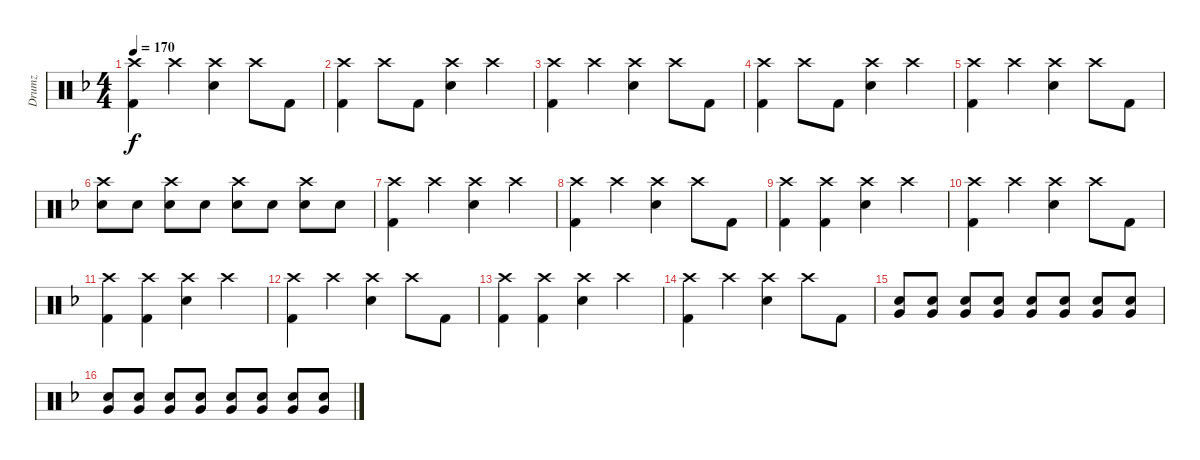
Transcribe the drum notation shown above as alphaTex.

\track ("Drumz" "Drumz") {instrument percussion}
\staff {score}
\articulation defaults
\ts (4 4)
\tempo 170
\clef neutral
\ks dminor
("Crash high (hit)" "Kick (hit) 2").4{dy f} "Crash high (hit)".4 ("Crash high (hit)" "Snare (hit) 2").4 "Crash high (hit)".8 "Kick (hit) 2".8 |
("Crash high (hit)" "Kick (hit) 2").4 "Crash high (hit)".8 "Kick (hit) 2".8 ("Crash high (hit)" "Snare (hit) 2").4 "Crash high (hit)".4 |
("Crash high (hit)" "Kick (hit) 2").4 "Crash high (hit)".4 ("Crash high (hit)" "Snare (hit) 2").4 "Crash high (hit)".8 "Kick (hit) 2".8 |
("Crash high (hit)" "Kick (hit) 2").4 "Crash high (hit)".8 "Kick (hit) 2".8 ("Crash high (hit)" "Snare (hit) 2").4 "Crash high (hit)".4 |
("Crash high (hit)" "Kick (hit) 2").4 "Crash high (hit)".4 ("Crash high (hit)" "Snare (hit) 2").4 "Crash high (hit)".8 "Kick (hit) 2".8 |
("Crash high (hit)" "Snare (hit) 2").8 "Snare (hit) 2".8 ("Crash high (hit)" "Snare (hit) 2").8 "Snare (hit) 2".8 ("Crash high (hit)" "Snare (hit) 2").8 "Snare (hit) 2".8 ("Crash high (hit)" "Snare (hit) 2").8 "Snare (hit) 2".8 |
("Crash high (hit)" "Kick (hit) 2").4 "Crash high (hit)".4 ("Crash high (hit)" "Snare (hit) 2").4 "Crash high (hit)".4 |
("Crash high (hit)" "Kick (hit) 2").4 "Crash high (hit)".4 ("Crash high (hit)" "Snare (hit) 2").4 "Crash high (hit)".8 "Kick (hit) 2".8 |
("Crash high (hit)" "Kick (hit) 2").4 ("Crash high (hit)" "Kick (hit) 2").4 ("Crash high (hit)" "Snare (hit) 2").4 "Crash high (hit)".4 |
("Crash high (hit)" "Kick (hit) 2").4 "Crash high (hit)".4 ("Crash high (hit)" "Snare (hit) 2").4 "Crash high (hit)".8 "Kick (hit) 2".8 |
("Crash high (hit)" "Kick (hit) 2").4 ("Crash high (hit)" "Kick (hit) 2").4 ("Crash high (hit)" "Snare (hit) 2").4 "Crash high (hit)".4 |
("Crash high (hit)" "Kick (hit) 2").4 "Crash high (hit)".4 ("Crash high (hit)" "Snare (hit) 2").4 "Crash high (hit)".8 "Kick (hit) 2".8 |
("Crash high (hit)" "Kick (hit) 2").4 ("Crash high (hit)" "Kick (hit) 2").4 ("Crash high (hit)" "Snare (hit) 2").4 "Crash high (hit)".4 |
("Crash high (hit)" "Kick (hit) 2").4 "Crash high (hit)".4 ("Crash high (hit)" "Snare (hit) 2").4 "Crash high (hit)".8 "Kick (hit) 2".8 |
("Snare (hit) 2" "Very Low Tom (hit)").8{volume 0} ("Snare (hit) 2" "Very Low Tom (hit)").8{volume 6} ("Very Low Tom (hit)" "Snare (hit) 2").8 ("Snare (hit) 2" "Very Low Tom (hit)").8 ("Snare (hit) 2" "Very Low Tom (hit)").8 ("Very Low Tom (hit)" "Snare (hit) 2").8 ("Snare (hit) 2" "Very Low Tom (hit)").8 ("Very Low Tom (hit)" "Snare (hit) 2").8 |
("Snare (hit) 2" "Very Low Tom (hit)").8 ("Snare (hit) 2" "Very Low Tom (hit)").8 ("Very Low Tom (hit)" "Snare (hit) 2").8 ("Snare (hit) 2" "Very Low Tom (hit)").8 ("Snare (hit) 2" "Very Low Tom (hit)").8 ("Very Low Tom (hit)" "Snare (hit) 2").8 ("Snare (hit) 2" "Very Low Tom (hit)").8 ("Very Low Tom (hit)" "Snare (hit) 2").8
